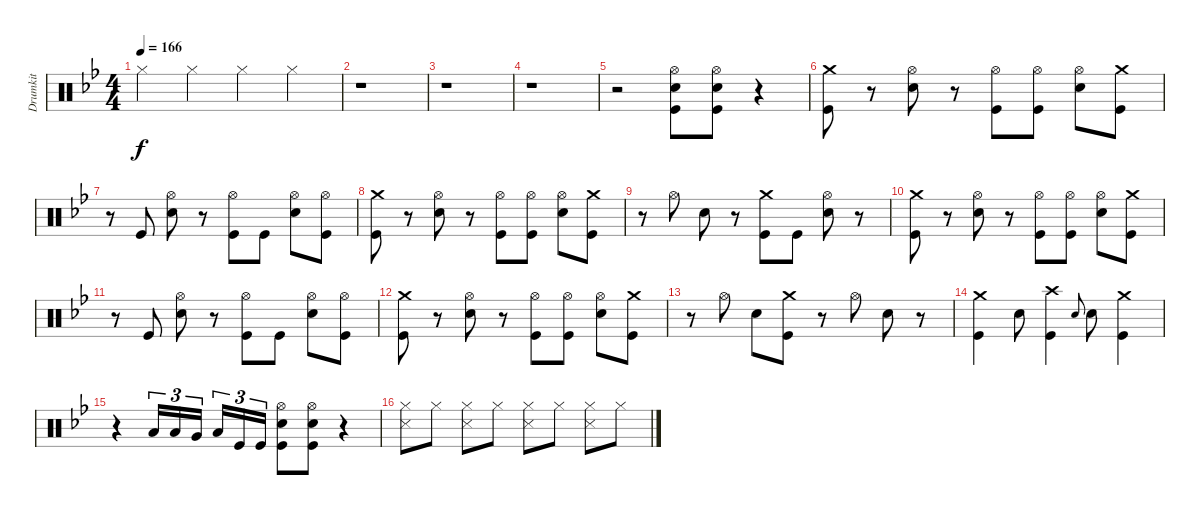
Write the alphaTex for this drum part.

\track ("Drumkit" "Drumkit") {instrument percussion}
\staff {score}
\articulation defaults
\ts (4 4)
\tempo 166
\clef neutral
\ks gminor "Hi-Hat (closed)".4{dy f} "Hi-Hat (closed)".4 "Hi-Hat (closed)".4 "Hi-Hat (closed)".4
|
r.1 |
r.1 |
r.1 |
r.2 ("Snare (hit) 2" "Kick (hit)" "Hi-Hat (open)").8 ("Snare (hit) 2" "Kick (hit)" "Hi-Hat (open)").8 r.4 |
("Kick (hit)" "Crash medium (hit)").8 r.8 ("Snare (hit) 2" "Hi-Hat (open)").8 r.8 ("Kick (hit)" "Hi-Hat (open)").8 ("Kick (hit)" "Hi-Hat (open)").8 ("Snare (hit) 2" "Hi-Hat (open)").8 ("Kick (hit)" "Crash medium (hit)").8 |
r.8 "Kick (hit)".8 ("Snare (hit) 2" "Hi-Hat (open)").8 r.8 ("Kick (hit)" "Hi-Hat (open)").8 "Kick (hit)".8 ("Snare (hit) 2" "Hi-Hat (open)").8 ("Kick (hit)" "Hi-Hat (open)").8 |
("Kick (hit)" "Crash medium (hit)").8 r.8 ("Snare (hit) 2" "Hi-Hat (open)").8 r.8 ("Kick (hit)" "Hi-Hat (open)").8 ("Kick (hit)" "Hi-Hat (open)").8 ("Snare (hit) 2" "Hi-Hat (open)").8 ("Kick (hit)" "Crash medium (hit)").8 |
r.8 "Hi-Hat (open)".8 "Snare (hit) 2".8 r.8 ("Kick (hit)" "Crash medium (hit)").8 "Kick (hit)".8 ("Snare (hit) 2" "Hi-Hat (open)").8 r.8 |
("Kick (hit)" "Crash medium (hit)").8 r.8 ("Snare (hit) 2" "Hi-Hat (open)").8 r.8 ("Kick (hit)" "Hi-Hat (open)").8 ("Kick (hit)" "Hi-Hat (open)").8 ("Snare (hit) 2" "Hi-Hat (open)").8 ("Kick (hit)" "Crash medium (hit)").8 |
r.8 "Kick (hit)".8 ("Snare (hit) 2" "Hi-Hat (open)").8 r.8 ("Kick (hit)" "Hi-Hat (open)").8 "Kick (hit)".8 ("Snare (hit) 2" "Hi-Hat (open)").8 ("Kick (hit)" "Hi-Hat (open)").8 |
("Kick (hit)" "Crash medium (hit)").8 r.8 ("Snare (hit) 2" "Hi-Hat (open)").8 r.8 ("Kick (hit)" "Hi-Hat (open)").8 ("Kick (hit)" "Hi-Hat (open)").8 ("Snare (hit) 2" "Hi-Hat (open)").8 ("Kick (hit)" "Crash medium (hit)").8 |
r.8 "Hi-Hat (open)".8 "Snare (hit) 2".8 ("Kick (hit)" "Crash medium (hit)").8 r.8 "Hi-Hat (open)".8 "Snare (hit) 2".8 r.8 |
("Kick (hit)" "Crash medium (hit)").4 "Snare (hit) 2".8 ("Kick (hit)" "Crash high (hit)").4 "Snare (hit)".8{gr onbeat} "Snare (hit) 2".8 ("Kick (hit)" "Crash medium (hit)").4 |
r.4 "Low Tom (hit)".16{tu (3 2)} "Low Tom (hit)".16{tu (3 2)} "Very Low Tom (hit)".16{tu (3 2)} "Low Floor Tom (hit)".16{tu (3 2)} "Kick (hit)".16{tu (3 2)} "Kick (hit)".16{tu (3 2)} ("Snare (hit) 2" "Hi-Hat (open)" "Kick (hit)").8 ("Snare (hit) 2" "Hi-Hat (open)" "Kick (hit)").8 r.4 |
("Snare (side stick) 3" "Hi-Hat (closed)").8 "Hi-Hat (closed)".8 ("Snare (side stick) 3" "Hi-Hat (closed)").8 "Hi-Hat (closed)".8 ("Hi-Hat (closed)" "Snare (side stick) 3").8 "Hi-Hat (closed)".8 ("Hi-Hat (closed)" "Snare (side stick) 3").8 "Hi-Hat (closed)".8
